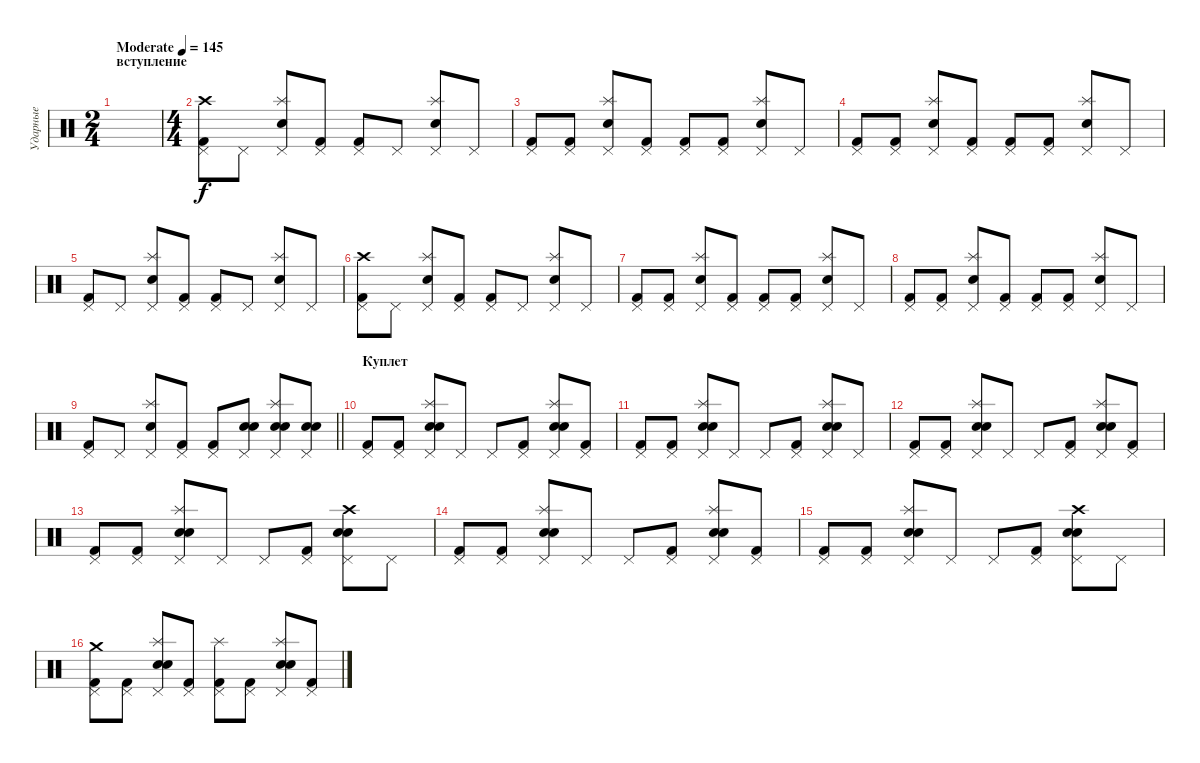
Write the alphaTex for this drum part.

\track ("Ударные" "Ударные") {instrument percussion}
\staff {score}
\articulation defaults
\ts (2 4)
\section ("" "вступление")
\tempo (145 "Moderate")
\clef neutral
\ks c
|
\ts (4 4)
("Crash high (hit)" "Pedal Hi-Hat (hit)" "Kick (hit) 2").8 "Pedal Hi-Hat (hit)".8 ("Splash (hit)" "Pedal Hi-Hat (hit)" "Electric Snare (hit)").8 ("Pedal Hi-Hat (hit)" "Kick (hit) 2").8 ("Pedal Hi-Hat (hit)" "Kick (hit) 2").8 "Pedal Hi-Hat (hit)".8 ("Splash (hit)" "Pedal Hi-Hat (hit)" "Electric Snare (hit)").8 "Pedal Hi-Hat (hit)".8 |
("Pedal Hi-Hat (hit)" "Kick (hit) 2").8 ("Pedal Hi-Hat (hit)" "Kick (hit) 2").8 ("Splash (hit)" "Pedal Hi-Hat (hit)" "Electric Snare (hit)").8 ("Pedal Hi-Hat (hit)" "Kick (hit) 2").8 ("Pedal Hi-Hat (hit)" "Kick (hit) 2").8 ("Pedal Hi-Hat (hit)" "Kick (hit) 2").8 ("Splash (hit)" "Pedal Hi-Hat (hit)" "Electric Snare (hit)").8 "Pedal Hi-Hat (hit)".8 |
("Pedal Hi-Hat (hit)" "Kick (hit) 2").8 ("Pedal Hi-Hat (hit)" "Kick (hit) 2").8 ("Splash (hit)" "Pedal Hi-Hat (hit)" "Electric Snare (hit)").8 ("Pedal Hi-Hat (hit)" "Kick (hit) 2").8 ("Pedal Hi-Hat (hit)" "Kick (hit) 2").8 ("Pedal Hi-Hat (hit)" "Kick (hit) 2").8 ("Splash (hit)" "Pedal Hi-Hat (hit)" "Electric Snare (hit)").8 "Pedal Hi-Hat (hit)".8 |
("Pedal Hi-Hat (hit)" "Kick (hit) 2").8 "Pedal Hi-Hat (hit)".8 ("Splash (hit)" "Pedal Hi-Hat (hit)" "Electric Snare (hit)").8 ("Pedal Hi-Hat (hit)" "Kick (hit) 2").8 ("Pedal Hi-Hat (hit)" "Kick (hit) 2").8 "Pedal Hi-Hat (hit)".8 ("Splash (hit)" "Pedal Hi-Hat (hit)" "Electric Snare (hit)").8 "Pedal Hi-Hat (hit)".8 |
("Crash high (hit)" "Pedal Hi-Hat (hit)" "Kick (hit) 2").8 "Pedal Hi-Hat (hit)".8 ("Splash (hit)" "Pedal Hi-Hat (hit)" "Electric Snare (hit)").8 ("Pedal Hi-Hat (hit)" "Kick (hit) 2").8 ("Pedal Hi-Hat (hit)" "Kick (hit) 2").8 "Pedal Hi-Hat (hit)".8 ("Splash (hit)" "Pedal Hi-Hat (hit)" "Electric Snare (hit)").8 "Pedal Hi-Hat (hit)".8 |
("Pedal Hi-Hat (hit)" "Kick (hit) 2").8 ("Pedal Hi-Hat (hit)" "Kick (hit) 2").8 ("Splash (hit)" "Pedal Hi-Hat (hit)" "Electric Snare (hit)").8 ("Pedal Hi-Hat (hit)" "Kick (hit) 2").8 ("Pedal Hi-Hat (hit)" "Kick (hit) 2").8 ("Pedal Hi-Hat (hit)" "Kick (hit) 2").8 ("Splash (hit)" "Pedal Hi-Hat (hit)" "Electric Snare (hit)").8 "Pedal Hi-Hat (hit)".8 |
("Pedal Hi-Hat (hit)" "Kick (hit) 2").8 ("Pedal Hi-Hat (hit)" "Kick (hit) 2").8 ("Splash (hit)" "Pedal Hi-Hat (hit)" "Electric Snare (hit)").8 ("Pedal Hi-Hat (hit)" "Kick (hit) 2").8 ("Pedal Hi-Hat (hit)" "Kick (hit) 2").8 ("Pedal Hi-Hat (hit)" "Kick (hit) 2").8 ("Splash (hit)" "Pedal Hi-Hat (hit)" "Electric Snare (hit)").8 "Pedal Hi-Hat (hit)".8 |
\barLineRight lightlight
("Pedal Hi-Hat (hit)" "Kick (hit) 2").8 "Pedal Hi-Hat (hit)".8 ("Splash (hit)" "Pedal Hi-Hat (hit)" "Electric Snare (hit)").8 ("Pedal Hi-Hat (hit)" "Kick (hit) 2").8 ("Pedal Hi-Hat (hit)" "Kick (hit) 2").8 ("Pedal Hi-Hat (hit)" "Electric Snare (hit)" "Snare (hit) 2").8 ("Splash (hit)" "Pedal Hi-Hat (hit)" "Electric Snare (hit)" "Snare (hit) 2").8 ("Pedal Hi-Hat (hit)" "Electric Snare (hit)" "Snare (hit) 2").8 |
\section ("" "Куплет")
("Pedal Hi-Hat (hit)" "Kick (hit) 2").8 ("Pedal Hi-Hat (hit)" "Kick (hit) 2").8 ("Splash (hit)" "Pedal Hi-Hat (hit)" "Electric Snare (hit)" "Snare (hit) 2").8 "Pedal Hi-Hat (hit)".8 "Pedal Hi-Hat (hit)".8 ("Pedal Hi-Hat (hit)" "Kick (hit) 2").8 ("Splash (hit)" "Pedal Hi-Hat (hit)" "Electric Snare (hit)" "Snare (hit) 2").8 ("Pedal Hi-Hat (hit)" "Kick (hit) 2").8 |
("Pedal Hi-Hat (hit)" "Kick (hit) 2").8 ("Pedal Hi-Hat (hit)" "Kick (hit) 2").8 ("Splash (hit)" "Pedal Hi-Hat (hit)" "Electric Snare (hit)" "Snare (hit) 2").8 "Pedal Hi-Hat (hit)".8 "Pedal Hi-Hat (hit)".8 ("Pedal Hi-Hat (hit)" "Kick (hit) 2").8 ("Splash (hit)" "Pedal Hi-Hat (hit)" "Electric Snare (hit)" "Snare (hit) 2").8 "Pedal Hi-Hat (hit)".8 |
("Pedal Hi-Hat (hit)" "Kick (hit) 2").8 ("Pedal Hi-Hat (hit)" "Kick (hit) 2").8 ("Splash (hit)" "Pedal Hi-Hat (hit)" "Electric Snare (hit)" "Snare (hit) 2").8 "Pedal Hi-Hat (hit)".8 "Pedal Hi-Hat (hit)".8 ("Pedal Hi-Hat (hit)" "Kick (hit) 2").8 ("Splash (hit)" "Pedal Hi-Hat (hit)" "Electric Snare (hit)" "Snare (hit) 2").8 ("Pedal Hi-Hat (hit)" "Kick (hit) 2").8 |
("Pedal Hi-Hat (hit)" "Kick (hit) 2").8 ("Pedal Hi-Hat (hit)" "Kick (hit) 2").8 ("Splash (hit)" "Pedal Hi-Hat (hit)" "Electric Snare (hit)" "Snare (hit) 2").8 "Pedal Hi-Hat (hit)".8 "Pedal Hi-Hat (hit)".8 ("Pedal Hi-Hat (hit)" "Kick (hit) 2").8 ("Crash high (hit)" "Pedal Hi-Hat (hit)" "Electric Snare (hit)" "Snare (hit) 2").8 "Pedal Hi-Hat (hit)".8 |
("Pedal Hi-Hat (hit)" "Kick (hit) 2").8 ("Pedal Hi-Hat (hit)" "Kick (hit) 2").8 ("Splash (hit)" "Pedal Hi-Hat (hit)" "Electric Snare (hit)" "Snare (hit) 2").8 "Pedal Hi-Hat (hit)".8 "Pedal Hi-Hat (hit)".8 ("Pedal Hi-Hat (hit)" "Kick (hit) 2").8 ("Splash (hit)" "Pedal Hi-Hat (hit)" "Electric Snare (hit)" "Snare (hit) 2").8 ("Pedal Hi-Hat (hit)" "Kick (hit) 2").8 |
("Pedal Hi-Hat (hit)" "Kick (hit) 2").8 ("Pedal Hi-Hat (hit)" "Kick (hit) 2").8 ("Splash (hit)" "Pedal Hi-Hat (hit)" "Electric Snare (hit)" "Snare (hit) 2").8 "Pedal Hi-Hat (hit)".8 "Pedal Hi-Hat (hit)".8 ("Pedal Hi-Hat (hit)" "Kick (hit) 2").8 ("Crash high (hit)" "Pedal Hi-Hat (hit)" "Electric Snare (hit)" "Snare (hit) 2").8 "Pedal Hi-Hat (hit)".8 |
("Crash medium (hit)" "Pedal Hi-Hat (hit)" "Kick (hit) 2").8 ("Pedal Hi-Hat (hit)" "Kick (hit) 2").8 ("Splash (hit)" "Pedal Hi-Hat (hit)" "Electric Snare (hit)" "Snare (hit) 2").8 ("Pedal Hi-Hat (hit)" "Kick (hit) 2").8 ("Splash (hit)" "Pedal Hi-Hat (hit)" "Kick (hit) 2").8 ("Pedal Hi-Hat (hit)" "Kick (hit) 2").8 ("Splash (hit)" "Pedal Hi-Hat (hit)" "Electric Snare (hit)" "Snare (hit) 2").8 ("Pedal Hi-Hat (hit)" "Kick (hit) 2").8
